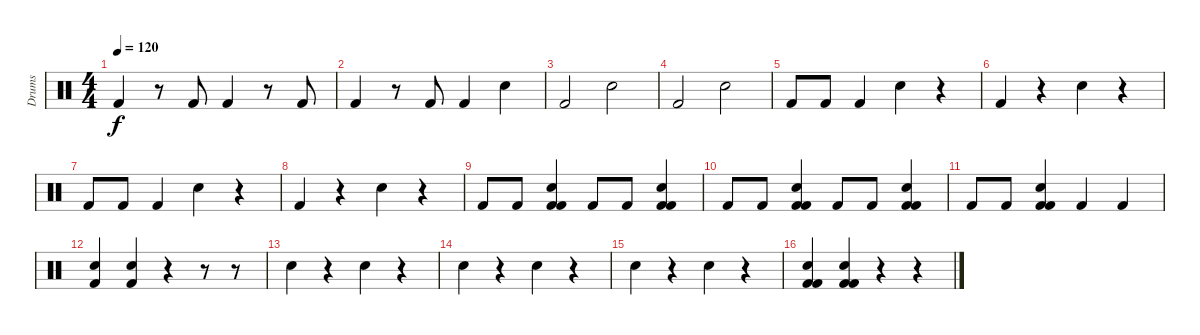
\track ("Drums" "Drums") {instrument percussion}
\staff {score}
\articulation defaults
\ts (4 4)
\tempo 120
\clef neutral
\ks c "Kick (hit) 2".4{dy f}
r.8 "Kick (hit) 2".8 "Kick (hit) 2".4 r.8 "Kick (hit) 2".8 |
"Kick (hit) 2".4 r.8 "Kick (hit) 2".8 "Kick (hit) 2".4 "Snare (hit) 2".4 |
"Kick (hit) 2".2 "Snare (hit) 2".2 |
"Kick (hit) 2".2 "Snare (hit) 2".2 |
\section ("" "")
"Kick (hit) 2".8 "Kick (hit) 2".8 "Kick (hit) 2".4 "Snare (hit) 2".4 r.4 |
"Kick (hit) 2".4 r.4 "Snare (hit) 2".4 r.4 |
"Kick (hit) 2".8 "Kick (hit) 2".8 "Kick (hit) 2".4 "Snare (hit) 2".4 r.4 |
"Kick (hit) 2".4 r.4 "Snare (hit) 2".4 r.4 |
"Kick (hit) 2".8 "Kick (hit) 2".8 ("Kick (hit) 2" "Kick (hit) 2" "Snare (hit) 2").4 "Kick (hit) 2".8 "Kick (hit) 2".8 ("Kick (hit) 2" "Kick (hit) 2" "Snare (hit) 2").4 |
"Kick (hit) 2".8 "Kick (hit) 2".8 ("Kick (hit) 2" "Kick (hit) 2" "Snare (hit) 2").4 "Kick (hit) 2".8 "Kick (hit) 2".8 ("Kick (hit) 2" "Kick (hit) 2" "Snare (hit) 2").4 |
"Kick (hit) 2".8 "Kick (hit) 2".8 ("Kick (hit) 2" "Kick (hit) 2" "Snare (hit) 2").4 "Kick (hit) 2".4 "Kick (hit) 2".4 |
("Kick (hit) 2" "Snare (hit) 2").4 ("Kick (hit) 2" "Snare (hit) 2").4 r.4 r.8 r.8 |
"Snare (hit) 2".4 r.4 "Snare (hit) 2".4 r.4 |
"Snare (hit) 2".4 r.4 "Snare (hit) 2".4 r.4 |
"Snare (hit) 2".4 r.4 "Snare (hit) 2".4 r.4 |
("Kick (hit) 2" "Kick (hit) 2" "Snare (hit) 2").4 ("Kick (hit) 2" "Kick (hit) 2" "Snare (hit) 2").4 r.4 r.4
